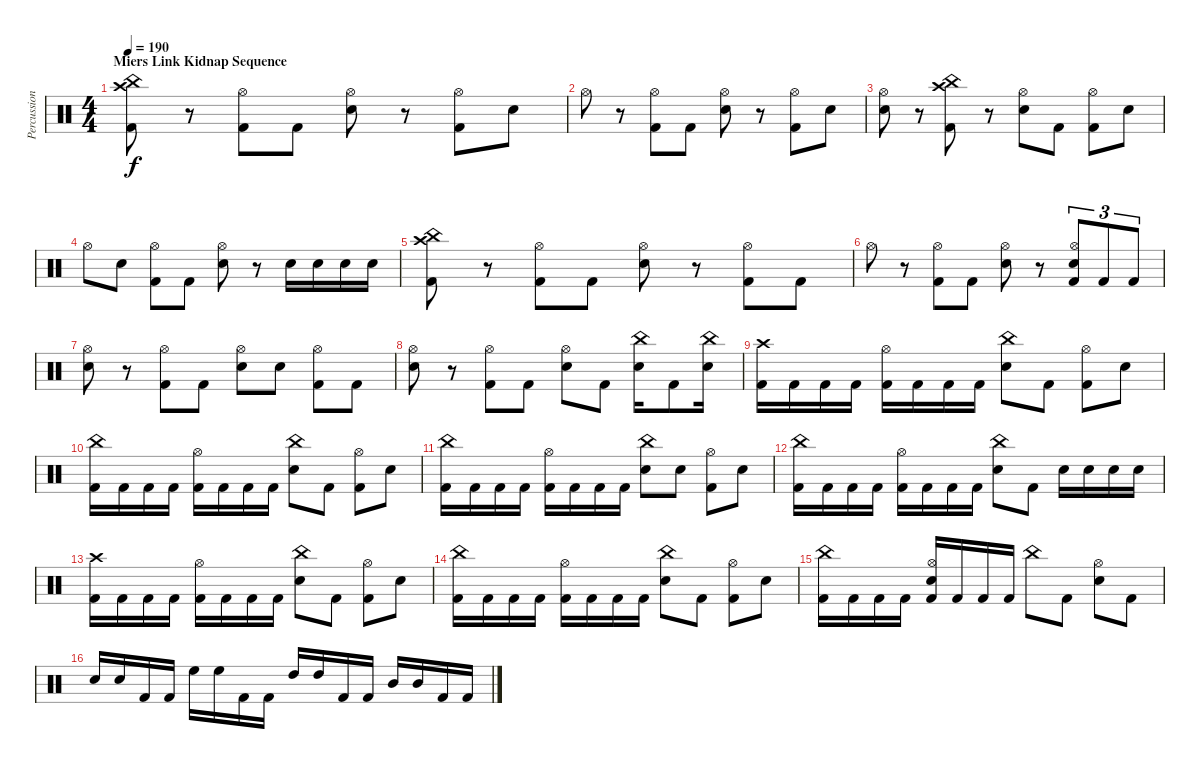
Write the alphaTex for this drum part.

\track ("Percussion" "Percussion") {instrument percussion}
\staff {score}
\articulation defaults
\ts (4 4)
\section ("" "Miers Link Kidnap Sequence")
\tempo 190
\clef neutral
\ks c
("China (hit)" "Crash high (hit)" "Kick (hit) 2").8{dy f} r.8 ("Hi-Hat (open)" "Kick (hit) 2").8 "Kick (hit) 2".8 ("Hi-Hat (open)" "Electric Snare (hit)").8 r.8 ("Hi-Hat (open)" "Kick (hit) 2").8 "Electric Snare (hit)".8 |
"Hi-Hat (open)".8 r.8 ("Hi-Hat (open)" "Kick (hit) 2").8 "Kick (hit) 2".8 ("Hi-Hat (open)" "Electric Snare (hit)").8 r.8 ("Hi-Hat (open)" "Kick (hit) 2").8 "Electric Snare (hit)".8 |
("Hi-Hat (open)" "Electric Snare (hit)").8 r.8 ("China (hit)" "Crash high (hit)" "Kick (hit) 2").8 r.8 ("Hi-Hat (open)" "Electric Snare (hit)").8 "Kick (hit) 2".8 ("Hi-Hat (open)" "Kick (hit) 2").8 "Electric Snare (hit)".8 |
"Hi-Hat (open)".8 "Electric Snare (hit)".8 ("Hi-Hat (open)" "Kick (hit) 2").8 "Kick (hit) 2".8 ("Hi-Hat (open)" "Electric Snare (hit)").8 r.8 "Electric Snare (hit)".16 "Electric Snare (hit)".16 "Electric Snare (hit)".16 "Electric Snare (hit)".16 |
("China (hit)" "Crash high (hit)" "Kick (hit) 2").8 r.8 ("Hi-Hat (open)" "Kick (hit) 2").8 "Kick (hit) 2".8 ("Hi-Hat (open)" "Electric Snare (hit)").8 r.8 ("Hi-Hat (open)" "Kick (hit) 2").8 "Kick (hit) 2".8 |
"Hi-Hat (open)".8 r.8 ("Hi-Hat (open)" "Kick (hit) 2").8 "Kick (hit) 2".8 ("Hi-Hat (open)" "Electric Snare (hit)").8 r.8 ("Hi-Hat (open)" "Electric Snare (hit)" "Kick (hit) 2").8{tu (3 2)} "Kick (hit) 2".8{tu (3 2)} "Kick (hit) 2".8{tu (3 2)} |
("Hi-Hat (open)" "Electric Snare (hit)").8 r.8 ("Hi-Hat (open)" "Kick (hit) 2").8 "Kick (hit) 2".8 ("Hi-Hat (open)" "Electric Snare (hit)").8 "Electric Snare (hit)".8 ("Hi-Hat (open)" "Kick (hit) 2").8 "Kick (hit) 2".8 |
("Hi-Hat (open)" "Electric Snare (hit)").8 r.8 ("Hi-Hat (open)" "Kick (hit) 2").8 "Kick (hit) 2".8 ("Hi-Hat (open)" "Electric Snare (hit)").8 "Kick (hit) 2".8 ("China (hit)" "Electric Snare (hit)").16 "Kick (hit) 2".8 ("China (hit)" "Electric Snare (hit)").16 |
("Crash high (hit)" "Kick (hit) 2").16 "Kick (hit) 2".16 "Kick (hit) 2".16 "Kick (hit) 2".16 ("Hi-Hat (open)" "Kick (hit) 2").16 "Kick (hit) 2".16 "Kick (hit) 2".16 "Kick (hit) 2".16 ("China (hit)" "Electric Snare (hit)").8 "Kick (hit) 2".8 ("Hi-Hat (open)" "Kick (hit) 2").8 "Electric Snare (hit)".8 |
("China (hit)" "Kick (hit) 2").16 "Kick (hit) 2".16 "Kick (hit) 2".16 "Kick (hit) 2".16 ("Hi-Hat (open)" "Kick (hit) 2").16 "Kick (hit) 2".16 "Kick (hit) 2".16 "Kick (hit) 2".16 ("China (hit)" "Electric Snare (hit)").8 "Kick (hit) 2".8 ("Hi-Hat (open)" "Kick (hit) 2").8 "Electric Snare (hit)".8 |
("China (hit)" "Kick (hit) 2").16 "Kick (hit) 2".16 "Kick (hit) 2".16 "Kick (hit) 2".16 ("Hi-Hat (open)" "Kick (hit) 2").16 "Kick (hit) 2".16 "Kick (hit) 2".16 "Kick (hit) 2".16 ("China (hit)" "Electric Snare (hit)").8 "Electric Snare (hit)".8 ("Hi-Hat (open)" "Kick (hit) 2").8 "Electric Snare (hit)".8 |
("China (hit)" "Kick (hit) 2").16 "Kick (hit) 2".16 "Kick (hit) 2".16 "Kick (hit) 2".16 ("Hi-Hat (open)" "Kick (hit) 2").16 "Kick (hit) 2".16 "Kick (hit) 2".16 "Kick (hit) 2".16 ("China (hit)" "Electric Snare (hit)").8 "Kick (hit) 2".8 "Electric Snare (hit)".16 "Electric Snare (hit)".16 "Electric Snare (hit)".16 "Electric Snare (hit)".16 |
("Crash high (hit)" "Kick (hit) 2").16 "Kick (hit) 2".16 "Kick (hit) 2".16 "Kick (hit) 2".16 ("Hi-Hat (open)" "Kick (hit) 2").16 "Kick (hit) 2".16 "Kick (hit) 2".16 "Kick (hit) 2".16 ("China (hit)" "Electric Snare (hit)").8 "Kick (hit) 2".8 ("Hi-Hat (open)" "Kick (hit) 2").8 "Electric Snare (hit)".8 |
("China (hit)" "Kick (hit) 2").16 "Kick (hit) 2".16 "Kick (hit) 2".16 "Kick (hit) 2".16 ("Hi-Hat (open)" "Kick (hit) 2").16 "Kick (hit) 2".16 "Kick (hit) 2".16 "Kick (hit) 2".16 ("China (hit)" "Electric Snare (hit)").8 "Kick (hit) 2".8 ("Hi-Hat (open)" "Kick (hit) 2").8 "Electric Snare (hit)".8 |
("China (hit)" "Kick (hit) 2").16 "Kick (hit) 2".16 "Kick (hit) 2".16 "Kick (hit) 2".16 ("Hi-Hat (open)" "Electric Snare (hit)" "Kick (hit) 2").16 "Kick (hit) 2".16 "Kick (hit) 2".16 "Kick (hit) 2".16 "China (hit)".8 "Kick (hit) 2".8 ("Hi-Hat (open)" "Electric Snare (hit)").8 "Kick (hit) 2".8 |
"Electric Snare (hit)".16 "Electric Snare (hit)".16 "Kick (hit) 2".16 "Kick (hit) 2".16 "High Floor Tom (hit)".16 "High Floor Tom (hit)".16 "Kick (hit) 2".16 "Kick (hit) 2".16 "High Tom (hit)".16 "High Tom (hit)".16 "Kick (hit) 2".16 "Kick (hit) 2".16 "Mid Tom (hit)".16 "Mid Tom (hit)".16 "Kick (hit) 2".16 "Kick (hit) 2".16
